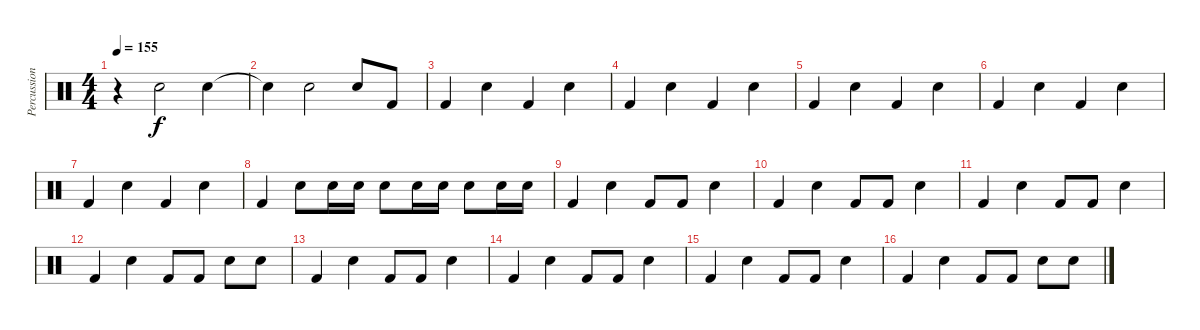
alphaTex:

\track ("Percussion" "Percussion") {instrument percussion}
\staff {score}
\articulation defaults
\ts (4 4)
\tempo 155
\clef neutral
\ks c
r.4{dy f} "Snare (hit) 2".2 "Snare (hit) 2".4 |
"Snare (hit)"{t}.4 "Snare (hit) 2".2 "Snare (hit) 2".8 "Kick (hit) 2".8 |
"Kick (hit) 2".4 "Snare (hit) 2".4 "Kick (hit) 2".4 "Snare (hit) 2".4 |
"Kick (hit) 2".4 "Snare (hit) 2".4 "Kick (hit) 2".4 "Snare (hit) 2".4 |
"Kick (hit) 2".4 "Snare (hit) 2".4 "Kick (hit) 2".4 "Snare (hit) 2".4 |
"Kick (hit) 2".4 "Snare (hit) 2".4 "Kick (hit) 2".4 "Snare (hit) 2".4 |
"Kick (hit) 2".4 "Snare (hit) 2".4 "Kick (hit) 2".4 "Snare (hit) 2".4 |
"Kick (hit) 2".4 "Snare (hit) 2".8 "Snare (hit) 2".16 "Snare (hit) 2".16 "Snare (hit) 2".8 "Snare (hit) 2".16 "Snare (hit) 2".16 "Snare (hit) 2".8 "Snare (hit) 2".16 "Snare (hit) 2".16 |
"Kick (hit) 2".4 "Snare (hit) 2".4 "Kick (hit) 2".8 "Kick (hit) 2".8 "Snare (hit) 2".4 |
"Kick (hit) 2".4 "Snare (hit) 2".4 "Kick (hit) 2".8 "Kick (hit) 2".8 "Snare (hit) 2".4 |
"Kick (hit) 2".4 "Snare (hit) 2".4 "Kick (hit) 2".8 "Kick (hit) 2".8 "Snare (hit) 2".4 |
"Kick (hit) 2".4 "Snare (hit) 2".4 "Kick (hit) 2".8 "Kick (hit) 2".8 "Snare (hit) 2".8 "Snare (hit) 2".8 |
"Kick (hit) 2".4 "Snare (hit) 2".4 "Kick (hit) 2".8 "Kick (hit) 2".8 "Snare (hit) 2".4 |
"Kick (hit) 2".4 "Snare (hit) 2".4 "Kick (hit) 2".8 "Kick (hit) 2".8 "Snare (hit) 2".4 |
"Kick (hit) 2".4 "Snare (hit) 2".4 "Kick (hit) 2".8 "Kick (hit) 2".8 "Snare (hit) 2".4 |
"Kick (hit) 2".4 "Snare (hit) 2".4 "Kick (hit) 2".8 "Kick (hit) 2".8 "Snare (hit) 2".8 "Snare (hit) 2".8
